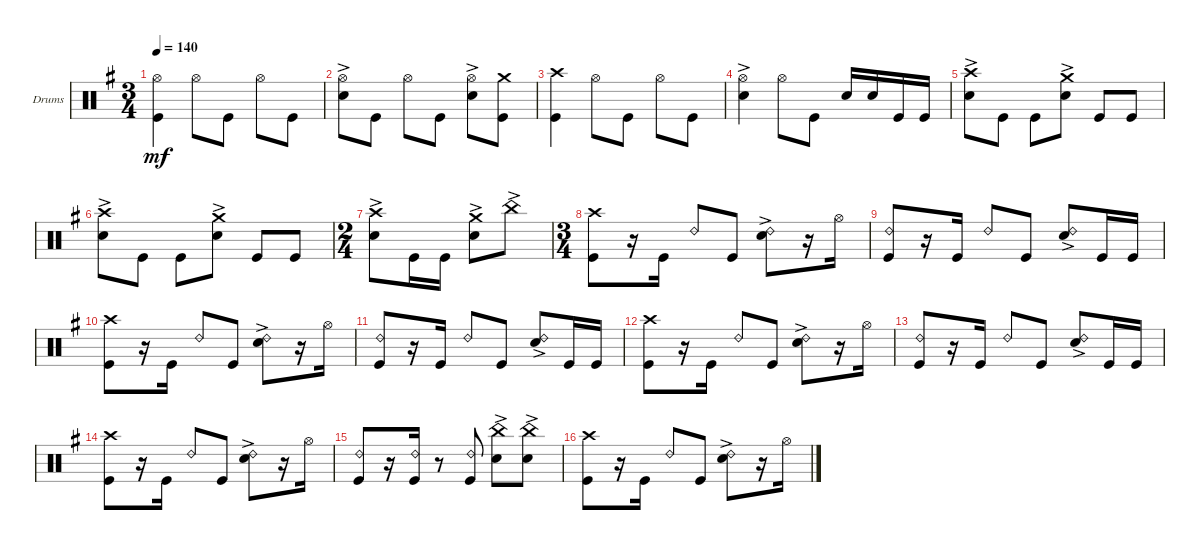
\bracketExtendMode groupsimilarinstruments
\firstSystemTrackNameOrientation horizontal
\otherSystemsTrackNameOrientation horizontal
\track ("Drumkit" "Drums") {instrument percussion}
\staff {score}
\articulation defaults
\ts (3 4)
\tempo 140
\clef neutral
\ks eminor
("Kick (hit)" "Hi-Hat (open)").4{dy mf} "Hi-Hat (open)".8 "Kick (hit)".8 "Hi-Hat (open)".8 "Kick (hit)".8 |
("Snare (hit) 2"{ac} "Hi-Hat (open)").8 "Kick (hit)".8 "Hi-Hat (open)".8 "Kick (hit)".8 ("Snare (hit) 2"{ac} "Hi-Hat (open)").8 ("Kick (hit)" "Crash medium (hit)").8 |
("Kick (hit)" "Crash high (hit)").4 "Hi-Hat (open)".8 "Kick (hit)".8 "Hi-Hat (open)".8 "Kick (hit)".8 |
("Snare (hit) 2"{ac} "Hi-Hat (open)").4 "Hi-Hat (open)".8 "Kick (hit)".8 "Snare (hit) 2".16 "Snare (hit) 2".16 "Kick (hit)".16 "Kick (hit)".16 |
("Snare (hit) 2"{ac} "Crash high (hit)").8 "Kick (hit)".8 "Kick (hit)".8 ("Snare (hit) 2"{ac} "Crash medium (hit)").8 "Kick (hit)".8 "Kick (hit)".8 |
("Snare (hit) 2"{ac} "Crash high (hit)").8 "Kick (hit)".8 "Kick (hit)".8 ("Snare (hit) 2"{ac} "Crash medium (hit)").8 "Kick (hit)".8 "Kick (hit)".8 |
\ts (2 4)
("Snare (hit) 2"{ac} "Crash high (hit)").8 "Kick (hit)".16 "Kick (hit)".16 ("Snare (hit) 2"{ac} "Crash medium (hit)").8 "China (hit)"{ac}.8 |
\ts (3 4)
("Kick (hit)" "Crash high (hit)").8 r.16 "Kick (hit)".16 "Ride (bell) 2".8 "Kick (hit)".8 ("Snare (hit) 2"{ac} "Ride (bell) 2").8 r.16 "Hi-Hat (open)".16 |
("Kick (hit)" "Ride (bell) 2").8 r.16 "Kick (hit)".16 "Ride (bell) 2".8 "Kick (hit)".8 ("Snare (hit) 2"{ac} "Ride (bell) 2").8 "Kick (hit)".16 "Kick (hit)".16 |
("Kick (hit)" "Crash high (hit)").8 r.16 "Kick (hit)".16 "Ride (bell) 2".8 "Kick (hit)".8 ("Snare (hit) 2"{ac} "Ride (bell) 2").8 r.16 "Hi-Hat (open)".16 |
("Kick (hit)" "Ride (bell) 2").8 r.16 "Kick (hit)".16 "Ride (bell) 2".8 "Kick (hit)".8 ("Snare (hit) 2"{ac} "Ride (bell) 2").8 "Kick (hit)".16 "Kick (hit)".16 |
("Kick (hit)" "Crash high (hit)").8 r.16 "Kick (hit)".16 "Ride (bell) 2".8 "Kick (hit)".8 ("Snare (hit) 2"{ac} "Ride (bell) 2").8 r.16 "Hi-Hat (open)".16 |
("Kick (hit)" "Ride (bell) 2").8 r.16 "Kick (hit)".16 "Ride (bell) 2".8 "Kick (hit)".8 ("Snare (hit) 2"{ac} "Ride (bell) 2").8 "Kick (hit)".16 "Kick (hit)".16 |
("Kick (hit)" "Crash high (hit)").8 r.16 "Kick (hit)".16 "Ride (bell) 2".8 "Kick (hit)".8 ("Snare (hit) 2"{ac} "Ride (bell) 2").8 r.16 "Hi-Hat (open)".16 |
("Kick (hit)" "Ride (bell) 2").8 r.16 ("Kick (hit)" "Ride (bell) 2").16 r.8 ("Kick (hit)" "Ride (bell) 2").8 ("Snare (hit) 2"{ac} "China (hit)").8 ("Snare (hit) 2"{ac} "China (hit)").8 |
("Kick (hit)" "Crash high (hit)").8 r.16 "Kick (hit)".16 "Ride (bell) 2".8 "Kick (hit)".8 ("Snare (hit) 2"{ac} "Ride (bell) 2").8 r.16 "Hi-Hat (open)".16
